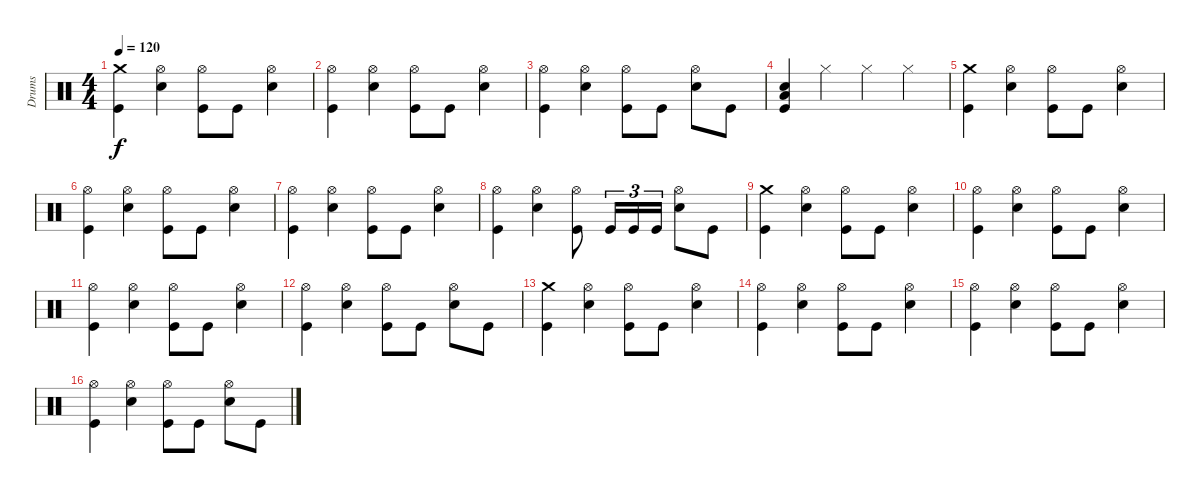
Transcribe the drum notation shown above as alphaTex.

\track ("Drums" "Drums") {instrument percussion}
\staff {score}
\articulation defaults
\ts (4 4)
\tempo 120
\clef neutral
\ks c
("Crash medium (hit)" "Kick (hit)").4{dy f} ("Hi-Hat (open)" "Snare (hit) 2").4 ("Hi-Hat (open)" "Kick (hit)").8 "Kick (hit)".8 ("Hi-Hat (open)" "Snare (hit) 2").4 |
("Hi-Hat (open)" "Kick (hit)").4 ("Hi-Hat (open)" "Snare (hit) 2").4 ("Hi-Hat (open)" "Kick (hit)").8 "Kick (hit)".8 ("Hi-Hat (open)" "Snare (hit) 2").4 |
("Hi-Hat (open)" "Kick (hit)").4 ("Hi-Hat (open)" "Snare (hit) 2").4 ("Hi-Hat (open)" "Kick (hit)").8 "Kick (hit)".8 ("Hi-Hat (open)" "Snare (hit) 2").8 "Kick (hit)".8 |
("Low Floor Tom (hit)" "Snare (hit) 2" "Kick (hit)").4 "Hi-Hat (closed)".4 "Hi-Hat (closed)".4 "Hi-Hat (closed)".4 |
("Crash medium (hit)" "Kick (hit)").4 ("Hi-Hat (open)" "Snare (hit) 2").4 ("Hi-Hat (open)" "Kick (hit)").8 "Kick (hit)".8 ("Hi-Hat (open)" "Snare (hit) 2").4 |
("Hi-Hat (open)" "Kick (hit)").4 ("Hi-Hat (open)" "Snare (hit) 2").4 ("Hi-Hat (open)" "Kick (hit)").8 "Kick (hit)".8 ("Hi-Hat (open)" "Snare (hit) 2").4 |
("Hi-Hat (open)" "Kick (hit)").4 ("Hi-Hat (open)" "Snare (hit) 2").4 ("Hi-Hat (open)" "Kick (hit)").8 "Kick (hit)".8 ("Hi-Hat (open)" "Snare (hit) 2").4 |
("Hi-Hat (open)" "Kick (hit)").4 ("Hi-Hat (open)" "Snare (hit) 2").4 ("Hi-Hat (open)" "Kick (hit)").8 "Kick (hit)".16{tu (3 2)} "Kick (hit)".16{tu (3 2)} "Kick (hit)".16{tu (3 2)} ("Hi-Hat (open)" "Snare (hit) 2").8 "Kick (hit)".8 |
("Crash medium (hit)" "Kick (hit)").4 ("Hi-Hat (open)" "Snare (hit) 2").4 ("Hi-Hat (open)" "Kick (hit)").8 "Kick (hit)".8 ("Hi-Hat (open)" "Snare (hit) 2").4 |
("Hi-Hat (open)" "Kick (hit)").4 ("Hi-Hat (open)" "Snare (hit) 2").4 ("Hi-Hat (open)" "Kick (hit)").8 "Kick (hit)".8 ("Hi-Hat (open)" "Snare (hit) 2").4 |
("Hi-Hat (open)" "Kick (hit)").4 ("Hi-Hat (open)" "Snare (hit) 2").4 ("Hi-Hat (open)" "Kick (hit)").8 "Kick (hit)".8 ("Hi-Hat (open)" "Snare (hit) 2").4 |
("Hi-Hat (open)" "Kick (hit)").4 ("Hi-Hat (open)" "Snare (hit) 2").4 ("Hi-Hat (open)" "Kick (hit)").8 "Kick (hit)".8 ("Hi-Hat (open)" "Snare (hit) 2").8 "Kick (hit)".8 |
("Crash medium (hit)" "Kick (hit)").4 ("Hi-Hat (open)" "Snare (hit) 2").4 ("Hi-Hat (open)" "Kick (hit)").8 "Kick (hit)".8 ("Hi-Hat (open)" "Snare (hit) 2").4 |
("Hi-Hat (open)" "Kick (hit)").4 ("Hi-Hat (open)" "Snare (hit) 2").4 ("Hi-Hat (open)" "Kick (hit)").8 "Kick (hit)".8 ("Hi-Hat (open)" "Snare (hit) 2").4 |
("Hi-Hat (open)" "Kick (hit)").4 ("Hi-Hat (open)" "Snare (hit) 2").4 ("Hi-Hat (open)" "Kick (hit)").8 "Kick (hit)".8 ("Hi-Hat (open)" "Snare (hit) 2").4 |
("Hi-Hat (open)" "Kick (hit)").4 ("Hi-Hat (open)" "Snare (hit) 2").4 ("Hi-Hat (open)" "Kick (hit)").8 "Kick (hit)".8 ("Hi-Hat (open)" "Snare (hit) 2").8 "Kick (hit)".8
